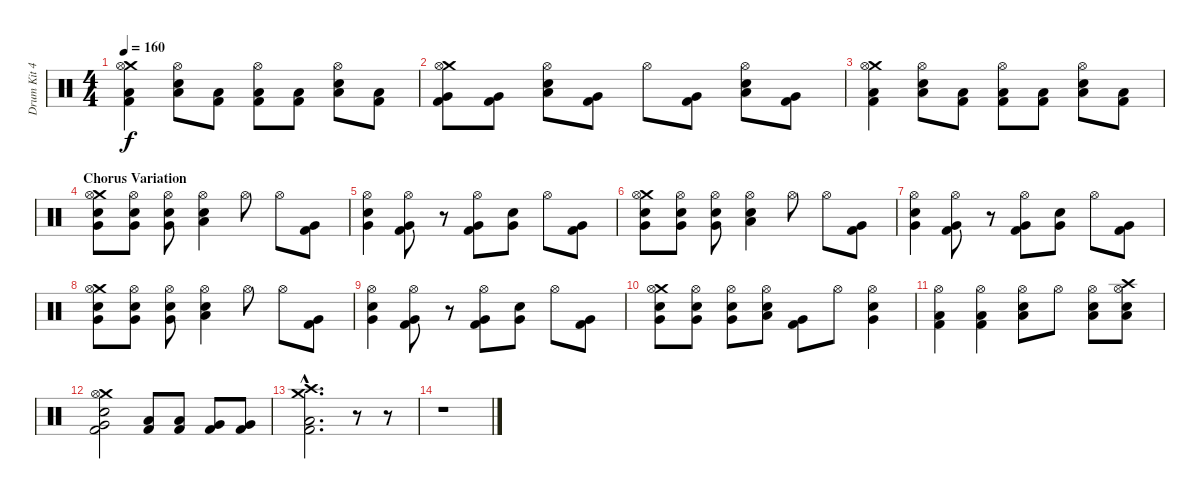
\track ("Drum Kit 42" "Drum Kit 4") {instrument percussion}
\staff {score}
\articulation defaults
\ts (4 4)
\tempo 160
\clef neutral
\ks c
("Crash medium (hit)" "Hi-Hat (open)" "Low Floor Tom (hit)" "Kick (hit) 2").4{dy f} ("Hi-Hat (open)" "Low Floor Tom (hit)" "Snare (hit) 2").8 ("Low Floor Tom (hit)" "Kick (hit) 2").8 ("Hi-Hat (open)" "Low Floor Tom (hit)" "Kick (hit) 2").8 ("Low Floor Tom (hit)" "Kick (hit) 2").8 ("Hi-Hat (open)" "Low Tom (hit)" "Snare (hit) 2").8 ("Low Tom (hit)" "Kick (hit) 2").8 |
("Crash medium (hit)" "Hi-Hat (open)" "Very Low Tom (hit)" "Kick (hit) 2").8 ("Very Low Tom (hit)" "Kick (hit) 2").8 ("Hi-Hat (open)" "Low Tom (hit)" "Snare (hit) 2").8 ("Very Low Tom (hit)" "Kick (hit) 2").8 "Hi-Hat (open)".8 ("Very Low Tom (hit)" "Kick (hit) 2").8 ("Hi-Hat (open)" "Low Tom (hit)" "Snare (hit) 2").8 ("Very Low Tom (hit)" "Kick (hit) 2").8 |
("Crash medium (hit)" "Hi-Hat (open)" "Low Floor Tom (hit)" "Kick (hit) 2").4 ("Hi-Hat (open)" "Low Floor Tom (hit)" "Snare (hit) 2").8 ("Low Floor Tom (hit)" "Kick (hit) 2").8 ("Hi-Hat (open)" "Low Floor Tom (hit)" "Kick (hit) 2").8 ("Low Floor Tom (hit)" "Kick (hit) 2").8 ("Hi-Hat (open)" "Low Tom (hit)" "Snare (hit) 2").8 ("Low Tom (hit)" "Kick (hit) 2").8 |
\section ("" "Chorus Variation")
("Crash medium (hit)" "Hi-Hat (open)" "Very Low Tom (hit)" "Snare (hit) 2").8 ("Hi-Hat (open)" "Very Low Tom (hit)" "Snare (hit) 2").8 ("Hi-Hat (open)" "Very Low Tom (hit)" "Snare (hit) 2").8 ("Hi-Hat (open)" "Low Tom (hit)" "Snare (hit) 2").4 "Hi-Hat (open)".8 "Hi-Hat (open)".8 ("Very Low Tom (hit)" "Kick (hit) 2").8 |
("Hi-Hat (open)" "Very Low Tom (hit)" "Snare (hit) 2").4 ("Hi-Hat (open)" "Very Low Tom (hit)" "Kick (hit) 2").8 r.8 ("Hi-Hat (open)" "Very Low Tom (hit)" "Kick (hit) 2").8 ("Very Low Tom (hit)" "Snare (hit) 2").8 "Hi-Hat (open)".8 ("Very Low Tom (hit)" "Kick (hit) 2").8 |
("Crash medium (hit)" "Hi-Hat (open)" "Very Low Tom (hit)" "Snare (hit) 2").8 ("Hi-Hat (open)" "Very Low Tom (hit)" "Snare (hit) 2").8 ("Hi-Hat (open)" "Very Low Tom (hit)" "Snare (hit) 2").8 ("Hi-Hat (open)" "Low Tom (hit)" "Snare (hit) 2").4 "Hi-Hat (open)".8 "Hi-Hat (open)".8 ("Very Low Tom (hit)" "Kick (hit) 2").8 |
("Hi-Hat (open)" "Very Low Tom (hit)" "Snare (hit) 2").4 ("Hi-Hat (open)" "Very Low Tom (hit)" "Kick (hit) 2").8 r.8 ("Hi-Hat (open)" "Very Low Tom (hit)" "Kick (hit) 2").8 ("Very Low Tom (hit)" "Snare (hit) 2").8 "Hi-Hat (open)".8 ("Very Low Tom (hit)" "Kick (hit) 2").8 |
("Crash medium (hit)" "Hi-Hat (open)" "Very Low Tom (hit)" "Snare (hit) 2").8 ("Hi-Hat (open)" "Very Low Tom (hit)" "Snare (hit) 2").8 ("Hi-Hat (open)" "Very Low Tom (hit)" "Snare (hit) 2").8 ("Hi-Hat (open)" "Low Tom (hit)" "Snare (hit) 2").4 "Hi-Hat (open)".8 "Hi-Hat (open)".8 ("Very Low Tom (hit)" "Kick (hit) 2").8 |
("Hi-Hat (open)" "Very Low Tom (hit)" "Snare (hit) 2").4 ("Hi-Hat (open)" "Very Low Tom (hit)" "Kick (hit) 2").8 r.8 ("Hi-Hat (open)" "Very Low Tom (hit)" "Kick (hit) 2").8 ("Very Low Tom (hit)" "Snare (hit) 2").8 "Hi-Hat (open)".8 ("Very Low Tom (hit)" "Kick (hit) 2").8 |
("Crash medium (hit)" "Hi-Hat (open)" "Very Low Tom (hit)" "Snare (hit) 2").8 ("Hi-Hat (open)" "Very Low Tom (hit)" "Snare (hit) 2").8 ("Hi-Hat (open)" "Very Low Tom (hit)" "Snare (hit) 2").8 ("Hi-Hat (open)" "Low Tom (hit)" "Snare (hit) 2").8 ("Very Low Tom (hit)" "Kick (hit) 2").8 "Hi-Hat (open)".8 ("Hi-Hat (open)" "Very Low Tom (hit)" "Snare (hit) 2").4 |
("Hi-Hat (open)" "Low Tom (hit)" "Kick (hit) 2").4 ("Hi-Hat (open)" "Low Tom (hit)" "Kick (hit) 2").4 ("Hi-Hat (open)" "Low Tom (hit)" "Snare (hit) 2").8 "Hi-Hat (open)".8 ("Hi-Hat (open)" "Low Tom (hit)" "Snare (hit) 2").8 ("Crash high (hit)" "Hi-Hat (open)" "Low Tom (hit)" "Snare (hit) 2").8 |
("Crash medium (hit)" "Hi-Hat (open)" "Snare (hit) 2" "Very Low Tom (hit)" "Kick (hit) 2").2 ("Low Tom (hit)" "Kick (hit) 2").8 ("Low Tom (hit)" "Kick (hit) 2").8 ("Very Low Tom (hit)" "Kick (hit) 2").8 ("Very Low Tom (hit)" "Kick (hit) 2").8 |
("Crash high (hit)"{hac} "Crash medium (hit)"{hac} "Low Tom (hit)"{hac} "Kick (hit) 2"{hac}).2{d} r.8 r.8 |
r.1
